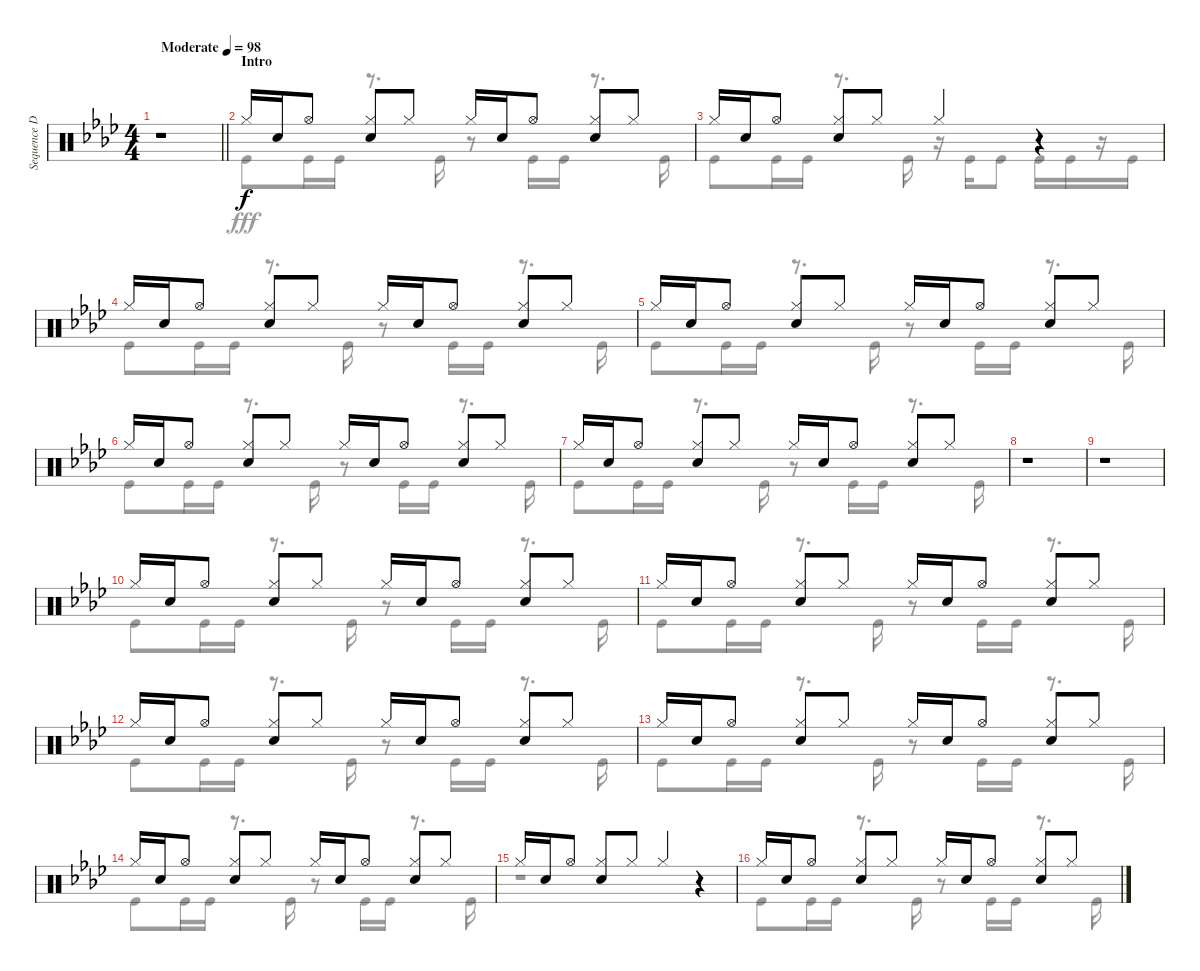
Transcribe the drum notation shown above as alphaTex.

\track ("Sequence Drums II" "Sequence D") {instrument percussion}
\staff {score}
\articulation defaults
\voice
\ts (4 4)
\tempo (98 "Moderate")
\clef neutral
\barLineRight lightlight
\ks ab
r.1{dy f} |
\section ("" "Intro")
"Hi-Hat (closed)".16 "Snare (hit) 2".16 "Hi-Hat (open)".8 ("Hi-Hat (closed)" "Snare (hit) 2").8 "Hi-Hat (closed)".8 "Hi-Hat (closed)".16 "Snare (hit) 2".16 "Hi-Hat (open)".8 ("Hi-Hat (closed)" "Snare (hit) 2").8 "Hi-Hat (closed)".8 |
"Hi-Hat (closed)".16 "Snare (hit) 2".16 "Hi-Hat (open)".8 ("Hi-Hat (closed)" "Snare (hit) 2").8 "Hi-Hat (closed)".8 "Hi-Hat (closed)".4 r.4 |
"Hi-Hat (closed)".16 "Snare (hit) 2".16 "Hi-Hat (open)".8 ("Hi-Hat (closed)" "Snare (hit) 2").8 "Hi-Hat (closed)".8 "Hi-Hat (closed)".16 "Snare (hit) 2".16 "Hi-Hat (open)".8 ("Hi-Hat (closed)" "Snare (hit) 2").8 "Hi-Hat (closed)".8 |
"Hi-Hat (closed)".16 "Snare (hit) 2".16 "Hi-Hat (open)".8 ("Hi-Hat (closed)" "Snare (hit) 2").8 "Hi-Hat (closed)".8 "Hi-Hat (closed)".16 "Snare (hit) 2".16 "Hi-Hat (open)".8 ("Hi-Hat (closed)" "Snare (hit) 2").8 "Hi-Hat (closed)".8 |
"Hi-Hat (closed)".16 "Snare (hit) 2".16 "Hi-Hat (open)".8 ("Hi-Hat (closed)" "Snare (hit) 2").8 "Hi-Hat (closed)".8 "Hi-Hat (closed)".16 "Snare (hit) 2".16 "Hi-Hat (open)".8 ("Hi-Hat (closed)" "Snare (hit) 2").8 "Hi-Hat (closed)".8 |
"Hi-Hat (closed)".16 "Snare (hit) 2".16 "Hi-Hat (open)".8 ("Hi-Hat (closed)" "Snare (hit) 2").8 "Hi-Hat (closed)".8 "Hi-Hat (closed)".16 "Snare (hit) 2".16 "Hi-Hat (open)".8 ("Hi-Hat (closed)" "Snare (hit) 2").8 "Hi-Hat (closed)".8 |
r.1 |
r.1 |
"Hi-Hat (closed)".16 "Snare (hit) 2".16 "Hi-Hat (open)".8 ("Hi-Hat (closed)" "Snare (hit) 2").8 "Hi-Hat (closed)".8 "Hi-Hat (closed)".16 "Snare (hit) 2".16 "Hi-Hat (open)".8 ("Hi-Hat (closed)" "Snare (hit) 2").8 "Hi-Hat (closed)".8 |
"Hi-Hat (closed)".16 "Snare (hit) 2".16 "Hi-Hat (open)".8 ("Hi-Hat (closed)" "Snare (hit) 2").8 "Hi-Hat (closed)".8 "Hi-Hat (closed)".16 "Snare (hit) 2".16 "Hi-Hat (open)".8 ("Hi-Hat (closed)" "Snare (hit) 2").8 "Hi-Hat (closed)".8 |
"Hi-Hat (closed)".16 "Snare (hit) 2".16 "Hi-Hat (open)".8 ("Hi-Hat (closed)" "Snare (hit) 2").8 "Hi-Hat (closed)".8 "Hi-Hat (closed)".16 "Snare (hit) 2".16 "Hi-Hat (open)".8 ("Hi-Hat (closed)" "Snare (hit) 2").8 "Hi-Hat (closed)".8 |
"Hi-Hat (closed)".16 "Snare (hit) 2".16 "Hi-Hat (open)".8 ("Hi-Hat (closed)" "Snare (hit) 2").8 "Hi-Hat (closed)".8 "Hi-Hat (closed)".16 "Snare (hit) 2".16 "Hi-Hat (open)".8 ("Hi-Hat (closed)" "Snare (hit) 2").8 "Hi-Hat (closed)".8 |
"Hi-Hat (closed)".16 "Snare (hit) 2".16 "Hi-Hat (open)".8 ("Hi-Hat (closed)" "Snare (hit) 2").8 "Hi-Hat (closed)".8 "Hi-Hat (closed)".16 "Snare (hit) 2".16 "Hi-Hat (open)".8 ("Hi-Hat (closed)" "Snare (hit) 2").8 "Hi-Hat (closed)".8 |
"Hi-Hat (closed)".16 "Snare (hit) 2".16 "Hi-Hat (open)".8 ("Hi-Hat (closed)" "Snare (hit) 2").8 "Hi-Hat (closed)".8 "Hi-Hat (closed)".4 r.4 |
"Hi-Hat (closed)".16 "Snare (hit) 2".16 "Hi-Hat (open)".8 ("Hi-Hat (closed)" "Snare (hit) 2").8 "Hi-Hat (closed)".8 "Hi-Hat (closed)".16 "Snare (hit) 2".16 "Hi-Hat (open)".8 ("Hi-Hat (closed)" "Snare (hit) 2").8 "Hi-Hat (closed)".8
\voice
\clef neutral
\ottava regular
\simile none
\barLineRight lightlight
\ks ab
r.1{dy fff} |
"Kick (hit)".8 "Kick (hit)".16 "Kick (hit)".16 r.8{d} "Kick (hit)".16 r.8 "Kick (hit)".16 "Kick (hit)".16 r.8{d} "Kick (hit)".16 |
"Kick (hit)".8 "Kick (hit)".16 "Kick (hit)".16 r.8{d} "Kick (hit)".16 r.16 "Kick (hit)".16 "Kick (hit)".8 "Kick (hit)".16 "Kick (hit)".16 r.16 "Kick (hit)".16 |
"Kick (hit)".8 "Kick (hit)".16 "Kick (hit)".16 r.8{d} "Kick (hit)".16 r.8 "Kick (hit)".16 "Kick (hit)".16 r.8{d} "Kick (hit)".16 |
"Kick (hit)".8 "Kick (hit)".16 "Kick (hit)".16 r.8{d} "Kick (hit)".16 r.8 "Kick (hit)".16 "Kick (hit)".16 r.8{d} "Kick (hit)".16 |
"Kick (hit)".8 "Kick (hit)".16 "Kick (hit)".16 r.8{d} "Kick (hit)".16 r.8 "Kick (hit)".16 "Kick (hit)".16 r.8{d} "Kick (hit)".16 |
"Kick (hit)".8 "Kick (hit)".16 "Kick (hit)".16 r.8{d} "Kick (hit)".16 r.8 "Kick (hit)".16 "Kick (hit)".16 r.8{d} "Kick (hit)".16 |
r.1 |
r.1 |
"Kick (hit)".8 "Kick (hit)".16 "Kick (hit)".16 r.8{d} "Kick (hit)".16 r.8 "Kick (hit)".16 "Kick (hit)".16 r.8{d} "Kick (hit)".16 |
"Kick (hit)".8 "Kick (hit)".16 "Kick (hit)".16 r.8{d} "Kick (hit)".16 r.8 "Kick (hit)".16 "Kick (hit)".16 r.8{d} "Kick (hit)".16 |
"Kick (hit)".8 "Kick (hit)".16 "Kick (hit)".16 r.8{d} "Kick (hit)".16 r.8 "Kick (hit)".16 "Kick (hit)".16 r.8{d} "Kick (hit)".16 |
"Kick (hit)".8 "Kick (hit)".16 "Kick (hit)".16 r.8{d} "Kick (hit)".16 r.8 "Kick (hit)".16 "Kick (hit)".16 r.8{d} "Kick (hit)".16 |
"Kick (hit)".8 "Kick (hit)".16 "Kick (hit)".16 r.8{d} "Kick (hit)".16 r.8 "Kick (hit)".16 "Kick (hit)".16 r.8{d} "Kick (hit)".16 |
r.1 |
"Kick (hit)".8 "Kick (hit)".16 "Kick (hit)".16 r.8{d} "Kick (hit)".16 r.8 "Kick (hit)".16 "Kick (hit)".16 r.8{d} "Kick (hit)".16
